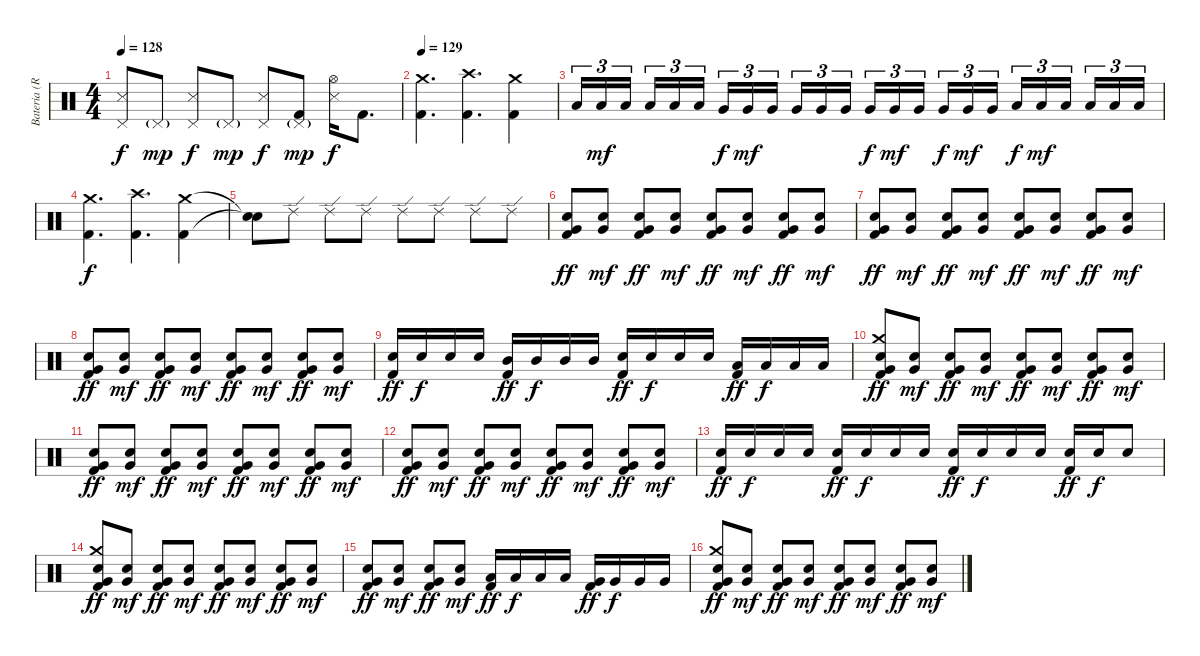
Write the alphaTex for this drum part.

\track ("Bateria (Roy)" "Bateria (R") {instrument percussion}
\staff {score}
\articulation defaults
\ts (4 4)
\tempo 128
\clef neutral
\ks c
("Pedal Hi-Hat (hit)" "Snare (side stick) 3").8{dy f} "Pedal Hi-Hat (hit)"{g}.8{dy mp} ("Pedal Hi-Hat (hit)" "Snare (side stick) 3").8{dy f} "Pedal Hi-Hat (hit)"{g}.8{dy mp} ("Pedal Hi-Hat (hit)" "Snare (side stick) 3").8{dy f} ("Pedal Hi-Hat (hit)"{g} "Kick (hit) 2").8{dy mp} ("Hi-Hat (open)" "Snare (side stick) 3").16{dy f} "Kick (hit) 2".8{d} |
\tempo 129
("Crash medium (hit)" "Kick (hit) 2").4{d} ("Crash high (hit)" "Kick (hit) 2").4{d} ("Crash medium (hit)" "Kick (hit) 2").4 |
"Low Tom (hit)".16{tu (3 2)} "Low Tom (hit)".16{tu (3 2) dy mf} "Low Tom (hit)".16{tu (3 2) beam splitsecondary} "Low Tom (hit)".16{tu (3 2)} "Low Tom (hit)".16{tu (3 2)} "Low Tom (hit)".16{tu (3 2)} "Very Low Tom (hit)".16{tu (3 2) dy f} "Very Low Tom (hit)".16{tu (3 2) dy mf} "Very Low Tom (hit)".16{tu (3 2) beam splitsecondary} "Very Low Tom (hit)".16{tu (3 2)} "Very Low Tom (hit)".16{tu (3 2)} "Very Low Tom (hit)".16{tu (3 2)} "Very Low Tom (hit)".16{tu (3 2) dy f} "Very Low Tom (hit)".16{tu (3 2) dy mf} "Very Low Tom (hit)".16{tu (3 2) beam splitsecondary} "Very Low Tom (hit)".16{tu (3 2) dy f} "Very Low Tom (hit)".16{tu (3 2) dy mf} "Very Low Tom (hit)".16{tu (3 2)} "Low Floor Tom (hit)".16{tu (3 2) dy f} "Low Floor Tom (hit)".16{tu (3 2) dy mf} "Low Floor Tom (hit)".16{tu (3 2) beam splitsecondary} "Low Floor Tom (hit)".16{tu (3 2)} "Low Floor Tom (hit)".16{tu (3 2)} "Low Floor Tom (hit)".16{tu (3 2)} |
("Crash medium (hit)" "Kick (hit) 2").4{d dy f} ("Crash high (hit)" "Kick (hit) 2").4{d} ("Crash medium (hit)" "Kick (hit) 2").4 |
("Snare (hit)"{t} "Snare (hit)"{t}).8 "Ride (edge) 2".8 "Ride (edge) 2".8 "Ride (edge) 2".8 "Ride (edge) 2".8 "Ride (edge) 2".8 "Ride (edge) 2".8 "Ride (edge) 2".8 |
("Very Low Tom (hit)" "Electric Snare (hit)" "Kick (hit) 2").8{dy ff} ("Very Low Tom (hit)" "Electric Snare (hit)").8{dy mf} ("Very Low Tom (hit)" "Electric Snare (hit)" "Kick (hit) 2").8{dy ff} ("Very Low Tom (hit)" "Electric Snare (hit)").8{dy mf} ("Very Low Tom (hit)" "Electric Snare (hit)" "Kick (hit) 2").8{dy ff} ("Very Low Tom (hit)" "Electric Snare (hit)").8{dy mf} ("Very Low Tom (hit)" "Electric Snare (hit)" "Kick (hit) 2").8{dy ff} ("Very Low Tom (hit)" "Electric Snare (hit)").8{dy mf} |
("Very Low Tom (hit)" "Electric Snare (hit)" "Kick (hit) 2").8{dy ff} ("Very Low Tom (hit)" "Electric Snare (hit)").8{dy mf} ("Very Low Tom (hit)" "Electric Snare (hit)" "Kick (hit) 2").8{dy ff} ("Very Low Tom (hit)" "Electric Snare (hit)").8{dy mf} ("Very Low Tom (hit)" "Electric Snare (hit)" "Kick (hit) 2").8{dy ff} ("Very Low Tom (hit)" "Electric Snare (hit)").8{dy mf} ("Very Low Tom (hit)" "Electric Snare (hit)" "Kick (hit) 2").8{dy ff} ("Very Low Tom (hit)" "Electric Snare (hit)").8{dy mf} |
("Very Low Tom (hit)" "Electric Snare (hit)" "Kick (hit) 2").8{dy ff} ("Very Low Tom (hit)" "Electric Snare (hit)").8{dy mf} ("Very Low Tom (hit)" "Electric Snare (hit)" "Kick (hit) 2").8{dy ff} ("Very Low Tom (hit)" "Electric Snare (hit)").8{dy mf} ("Very Low Tom (hit)" "Electric Snare (hit)" "Kick (hit) 2").8{dy ff} ("Very Low Tom (hit)" "Electric Snare (hit)").8{dy mf} ("Very Low Tom (hit)" "Electric Snare (hit)" "Kick (hit) 2").8{dy ff} ("Very Low Tom (hit)" "Electric Snare (hit)").8{dy mf} |
("Electric Snare (hit)" "Kick (hit) 2").16{dy ff} "Electric Snare (hit)".16{dy f} "Electric Snare (hit)".16 "Electric Snare (hit)".16 ("Mid Tom (hit)" "Kick (hit) 2").16{dy ff} "Mid Tom (hit)".16{dy f} "Mid Tom (hit)".16 "Mid Tom (hit)".16 ("Electric Snare (hit)" "Kick (hit) 2").16{dy ff} "Electric Snare (hit)".16{dy f} "Electric Snare (hit)".16 "Electric Snare (hit)".16 ("Low Tom (hit)" "Kick (hit) 2").16{dy ff} "Low Tom (hit)".16{dy f} "Low Tom (hit)".16 "Low Tom (hit)".16 |
("Crash medium (hit)" "Very Low Tom (hit)" "Electric Snare (hit)" "Kick (hit) 2").8{dy ff} ("Very Low Tom (hit)" "Electric Snare (hit)").8{dy mf} ("Very Low Tom (hit)" "Electric Snare (hit)" "Kick (hit) 2").8{dy ff} ("Very Low Tom (hit)" "Electric Snare (hit)").8{dy mf} ("Very Low Tom (hit)" "Electric Snare (hit)" "Kick (hit) 2").8{dy ff} ("Very Low Tom (hit)" "Electric Snare (hit)").8{dy mf} ("Very Low Tom (hit)" "Electric Snare (hit)" "Kick (hit) 2").8{dy ff} ("Very Low Tom (hit)" "Electric Snare (hit)").8{dy mf} |
("Very Low Tom (hit)" "Electric Snare (hit)" "Kick (hit) 2").8{dy ff} ("Very Low Tom (hit)" "Electric Snare (hit)").8{dy mf} ("Very Low Tom (hit)" "Electric Snare (hit)" "Kick (hit) 2").8{dy ff} ("Very Low Tom (hit)" "Electric Snare (hit)").8{dy mf} ("Very Low Tom (hit)" "Electric Snare (hit)" "Kick (hit) 2").8{dy ff} ("Very Low Tom (hit)" "Electric Snare (hit)").8{dy mf} ("Very Low Tom (hit)" "Electric Snare (hit)" "Kick (hit) 2").8{dy ff} ("Very Low Tom (hit)" "Electric Snare (hit)").8{dy mf} |
("Very Low Tom (hit)" "Electric Snare (hit)" "Kick (hit) 2").8{dy ff} ("Very Low Tom (hit)" "Electric Snare (hit)").8{dy mf} ("Very Low Tom (hit)" "Electric Snare (hit)" "Kick (hit) 2").8{dy ff} ("Very Low Tom (hit)" "Electric Snare (hit)").8{dy mf} ("Very Low Tom (hit)" "Electric Snare (hit)" "Kick (hit) 2").8{dy ff} ("Very Low Tom (hit)" "Electric Snare (hit)").8{dy mf} ("Very Low Tom (hit)" "Electric Snare (hit)" "Kick (hit) 2").8{dy ff} ("Very Low Tom (hit)" "Electric Snare (hit)").8{dy mf} |
("Electric Snare (hit)" "Kick (hit) 2").16{dy ff} "Electric Snare (hit)".16{dy f} "Electric Snare (hit)".16 "Electric Snare (hit)".16 ("Electric Snare (hit)" "Kick (hit) 2").16{dy ff} "Electric Snare (hit)".16{dy f} "Electric Snare (hit)".16 "Electric Snare (hit)".16 ("Electric Snare (hit)" "Kick (hit) 2").16{dy ff} "Electric Snare (hit)".16{dy f} "Electric Snare (hit)".16 "Electric Snare (hit)".16 ("Electric Snare (hit)" "Kick (hit) 2").16{dy ff} "Electric Snare (hit)".16{dy f} "Electric Snare (hit)".8 |
("Crash medium (hit)" "Very Low Tom (hit)" "Electric Snare (hit)" "Kick (hit) 2").8{dy ff} ("Very Low Tom (hit)" "Electric Snare (hit)").8{dy mf} ("Very Low Tom (hit)" "Electric Snare (hit)" "Kick (hit) 2").8{dy ff} ("Very Low Tom (hit)" "Electric Snare (hit)").8{dy mf} ("Very Low Tom (hit)" "Electric Snare (hit)" "Kick (hit) 2").8{dy ff} ("Very Low Tom (hit)" "Electric Snare (hit)").8{dy mf} ("Very Low Tom (hit)" "Electric Snare (hit)" "Kick (hit) 2").8{dy ff} ("Very Low Tom (hit)" "Electric Snare (hit)").8{dy mf} |
("Very Low Tom (hit)" "Electric Snare (hit)" "Kick (hit) 2").8{dy ff} ("Very Low Tom (hit)" "Electric Snare (hit)").8{dy mf} ("Very Low Tom (hit)" "Electric Snare (hit)" "Kick (hit) 2").8{dy ff} ("Very Low Tom (hit)" "Electric Snare (hit)").8{dy mf} ("Low Tom (hit)" "Kick (hit) 2").16{dy ff} "Low Tom (hit)".16{dy f} "Low Tom (hit)".16 "Low Tom (hit)".16 ("Very Low Tom (hit)" "Kick (hit) 2").16{dy ff} "Very Low Tom (hit)".16{dy f} "Very Low Tom (hit)".16 "Very Low Tom (hit)".16 |
("Crash medium (hit)" "Very Low Tom (hit)" "Electric Snare (hit)" "Kick (hit) 2").8{dy ff} ("Very Low Tom (hit)" "Electric Snare (hit)").8{dy mf} ("Very Low Tom (hit)" "Electric Snare (hit)" "Kick (hit) 2").8{dy ff} ("Very Low Tom (hit)" "Electric Snare (hit)").8{dy mf} ("Very Low Tom (hit)" "Electric Snare (hit)" "Kick (hit) 2").8{dy ff} ("Very Low Tom (hit)" "Electric Snare (hit)").8{dy mf} ("Very Low Tom (hit)" "Electric Snare (hit)" "Kick (hit) 2").8{dy ff} ("Very Low Tom (hit)" "Electric Snare (hit)").8{dy mf}
